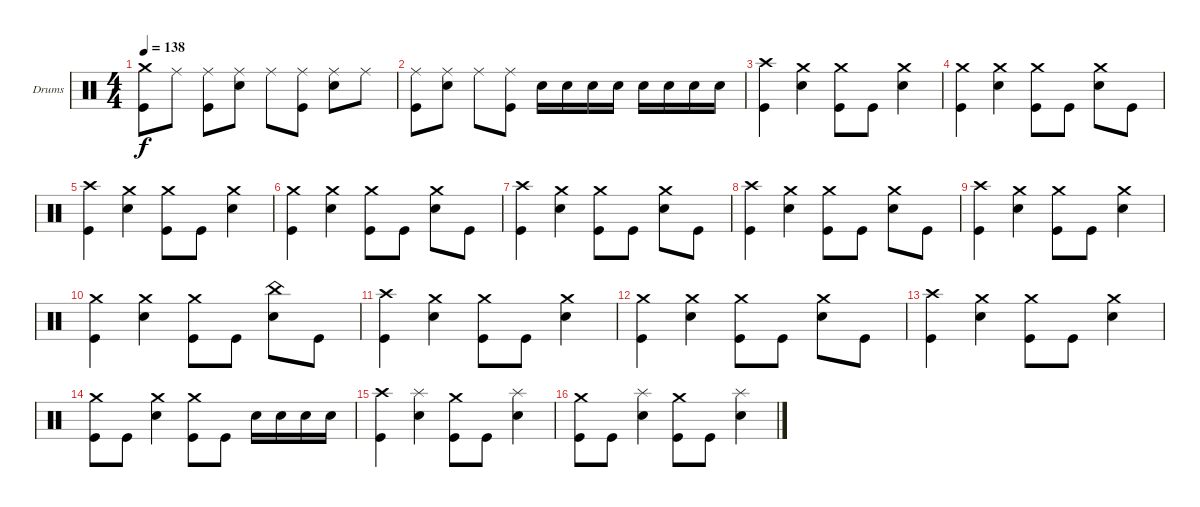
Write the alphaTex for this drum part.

\defaultSystemsLayout 4
\bracketExtendMode groupsimilarinstruments
\firstSystemTrackNameOrientation horizontal
\otherSystemsTrackNameOrientation horizontal
\track ("Drumkit" "Drums") {instrument percussion}
\staff {score}
\articulation defaults
\ts (4 4)
\tempo 138
\clef neutral
\ks c
("Kick (hit)" "Crash medium (hit)").8{dy f} "Ride (middle)".8 ("Ride (middle)" "Kick (hit)").8 ("Ride (middle)" "Snare (hit) 2").8 "Ride (middle)".8 ("Ride (middle)" "Kick (hit)").8 ("Ride (middle)" "Snare (hit) 2").8 "Ride (middle)".8 |
("Ride (middle)" "Kick (hit)").8 ("Ride (middle)" "Snare (hit) 2").8 "Ride (middle)".8 ("Ride (middle)" "Kick (hit)").8 "Snare (hit) 2".16 "Snare (hit) 2".16 "Snare (hit) 2".16 "Snare (hit) 2".16 "Snare (hit) 2".16 "Snare (hit) 2".16 "Snare (hit) 2".16 "Snare (hit) 2".16 |
("Kick (hit)" "Crash high (hit)").4 ("Crash medium (hit)" "Snare (hit) 2").4 ("Crash medium (hit)" "Kick (hit)").8 "Kick (hit)".8 ("Crash medium (hit)" "Snare (hit) 2").4 |
("Kick (hit)" "Crash medium (hit)").4 ("Snare (hit) 2" "Crash medium (hit)").4 ("Kick (hit)" "Crash medium (hit)").8 "Kick (hit)".8 ("Snare (hit) 2" "Crash medium (hit)").8 "Kick (hit)".8 |
("Kick (hit)" "Crash high (hit)").4 ("Crash medium (hit)" "Snare (hit) 2").4 ("Crash medium (hit)" "Kick (hit)").8 "Kick (hit)".8 ("Crash medium (hit)" "Snare (hit) 2").4 |
("Kick (hit)" "Crash medium (hit)").4 ("Snare (hit) 2" "Crash medium (hit)").4 ("Kick (hit)" "Crash medium (hit)").8 "Kick (hit)".8 ("Snare (hit) 2" "Crash medium (hit)").8 "Kick (hit)".8 |
("Kick (hit)" "Crash high (hit)").4 ("Crash medium (hit)" "Snare (hit) 2").4 ("Crash medium (hit)" "Kick (hit)").8 "Kick (hit)".8 ("Crash medium (hit)" "Snare (hit) 2").8 "Kick (hit)".8 |
("Kick (hit)" "Crash high (hit)").4 ("Crash medium (hit)" "Snare (hit) 2").4 ("Crash medium (hit)" "Kick (hit)").8 "Kick (hit)".8 ("Crash medium (hit)" "Snare (hit) 2").8 "Kick (hit)".8 |
("Kick (hit)" "Crash high (hit)").4 ("Crash medium (hit)" "Snare (hit) 2").4 ("Crash medium (hit)" "Kick (hit)").8 "Kick (hit)".8 ("Crash medium (hit)" "Snare (hit) 2").4 |
("Kick (hit)" "Crash medium (hit)").4 ("Snare (hit) 2" "Crash medium (hit)").4 ("Kick (hit)" "Crash medium (hit)").8 "Kick (hit)".8 ("Snare (hit) 2" "China (hit)").8 "Kick (hit)".8 |
("Kick (hit)" "Crash high (hit)").4 ("Crash medium (hit)" "Snare (hit) 2").4 ("Crash medium (hit)" "Kick (hit)").8 "Kick (hit)".8 ("Crash medium (hit)" "Snare (hit) 2").4 |
("Kick (hit)" "Crash medium (hit)").4 ("Snare (hit) 2" "Crash medium (hit)").4 ("Kick (hit)" "Crash medium (hit)").8 "Kick (hit)".8 ("Snare (hit) 2" "Crash medium (hit)").8 "Kick (hit)".8 |
("Kick (hit)" "Crash high (hit)").4 ("Crash medium (hit)" "Snare (hit) 2").4 ("Kick (hit)" "Crash medium (hit)").8 "Kick (hit)".8 ("Snare (hit) 2" "Crash medium (hit)").4 |
("Kick (hit)" "Crash medium (hit)").8 "Kick (hit)".8 ("Snare (hit) 2" "Crash medium (hit)").4 ("Kick (hit)" "Crash medium (hit)").8 "Kick (hit)".8 "Snare (hit) 2".16 "Snare (hit) 2".16 "Snare (hit) 2".16 "Snare (hit) 2".16 |
("Crash high (hit)" "Kick (hit)").4 ("Snare (hit) 2" "Splash (hit)").4 ("Kick (hit)" "Crash medium (hit)").8 "Kick (hit)".8 ("Snare (hit) 2" "Splash (hit)").4 |
("Kick (hit)" "Crash medium (hit)").8 "Kick (hit)".8 ("Snare (hit) 2" "Splash (hit)").4 ("Kick (hit)" "Crash medium (hit)").8 "Kick (hit)".8 ("Snare (hit) 2" "Splash (hit)").4
